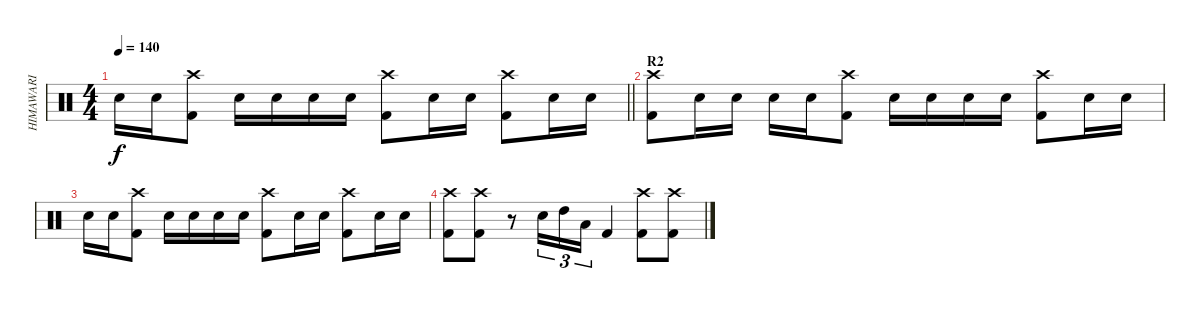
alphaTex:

\track ("HIMAWARI" "HIMAWARI") {instrument percussion}
\staff {score}
\articulation defaults
\ts (4 4)
\tempo 140
\clef neutral
\barLineRight lightlight
\ks c "Snare (hit) 2".16{dy f} "Snare (hit) 2".16
("Crash high (hit)" "Kick (hit) 2").8 "Snare (hit) 2".16 "Snare (hit) 2".16 "Snare (hit) 2".16 "Snare (hit) 2".16 ("Crash high (hit)" "Kick (hit) 2").8 "Snare (hit) 2".16 "Snare (hit) 2".16 ("Crash high (hit)" "Kick (hit) 2").8 "Snare (hit) 2".16 "Snare (hit) 2".16 |
\section ("" "R2")
("Crash high (hit)" "Kick (hit) 2").8 "Snare (hit) 2".16 "Snare (hit) 2".16 "Snare (hit) 2".16 "Snare (hit) 2".16 ("Crash high (hit)" "Kick (hit) 2").8 "Snare (hit) 2".16 "Snare (hit) 2".16 "Snare (hit) 2".16 "Snare (hit) 2".16 ("Crash high (hit)" "Kick (hit) 2").8 "Snare (hit) 2".16 "Snare (hit) 2".16 |
"Snare (hit) 2".16 "Snare (hit) 2".16 ("Crash high (hit)" "Kick (hit) 2").8 "Snare (hit) 2".16 "Snare (hit) 2".16 "Snare (hit) 2".16 "Snare (hit) 2".16 ("Crash high (hit)" "Kick (hit) 2").8 "Snare (hit) 2".16 "Snare (hit) 2".16 ("Crash high (hit)" "Kick (hit) 2").8 "Snare (hit) 2".16 "Snare (hit) 2".16 |
("Crash high (hit)" "Kick (hit) 2").8 ("Crash high (hit)" "Kick (hit) 2").8 r.8 "Snare (hit) 2".16{tu (3 2)} "High Tom (hit)".16{tu (3 2)} "Low Tom (hit)".16{tu (3 2)} "Kick (hit) 2".4 ("Crash high (hit)" "Kick (hit) 2").8 ("Crash high (hit)" "Kick (hit) 2").8
